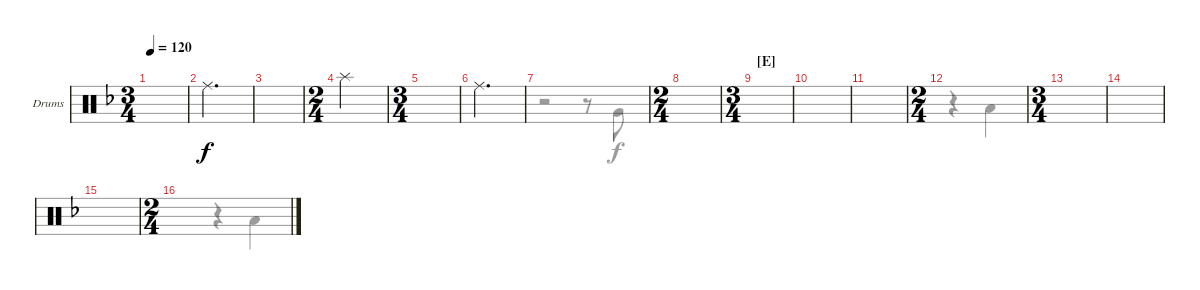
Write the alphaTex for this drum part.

\defaultSystemsLayout 4
\bracketExtendMode groupsimilarinstruments
\firstSystemTrackNameOrientation horizontal
\otherSystemsTrackNameOrientation horizontal
\track ("Drumkit" "Drums") {instrument percussion}
\staff {score}
\articulation defaults
\voice
\ts (3 4)
\tempo 120
\clef neutral
\scale
0.4
\ks f
|
\scale
0.2 "Ride (middle)".2{d} |
\scale
0.2 |
\ts (2 4)
\scale
0.4 "Splash (hit)".2 |
\ts (3 4)
\scale
0.4 |
"Ride (middle)".2{d} |
|
\ts (2 4)
|
\ts (3 4)
\section ("E" "")
|
|
|
\ts (2 4)
|
\ts (3 4)
|
|
|
\ts (2 4)
\voice
\clef neutral
\ottava regular
\simile none
\scale
0.4
\ks f
|
\scale
0.2 |
\scale
0.2 |
\scale
0.4 |
\scale
0.4 |
|
r.2 r.8 "Very Low Tom (hit)".8 |
|
|
|
|
r.4 "Low Tom (hit)".4{dy f} |
|
|
|
r.4 "Low Tom (hit)".4
